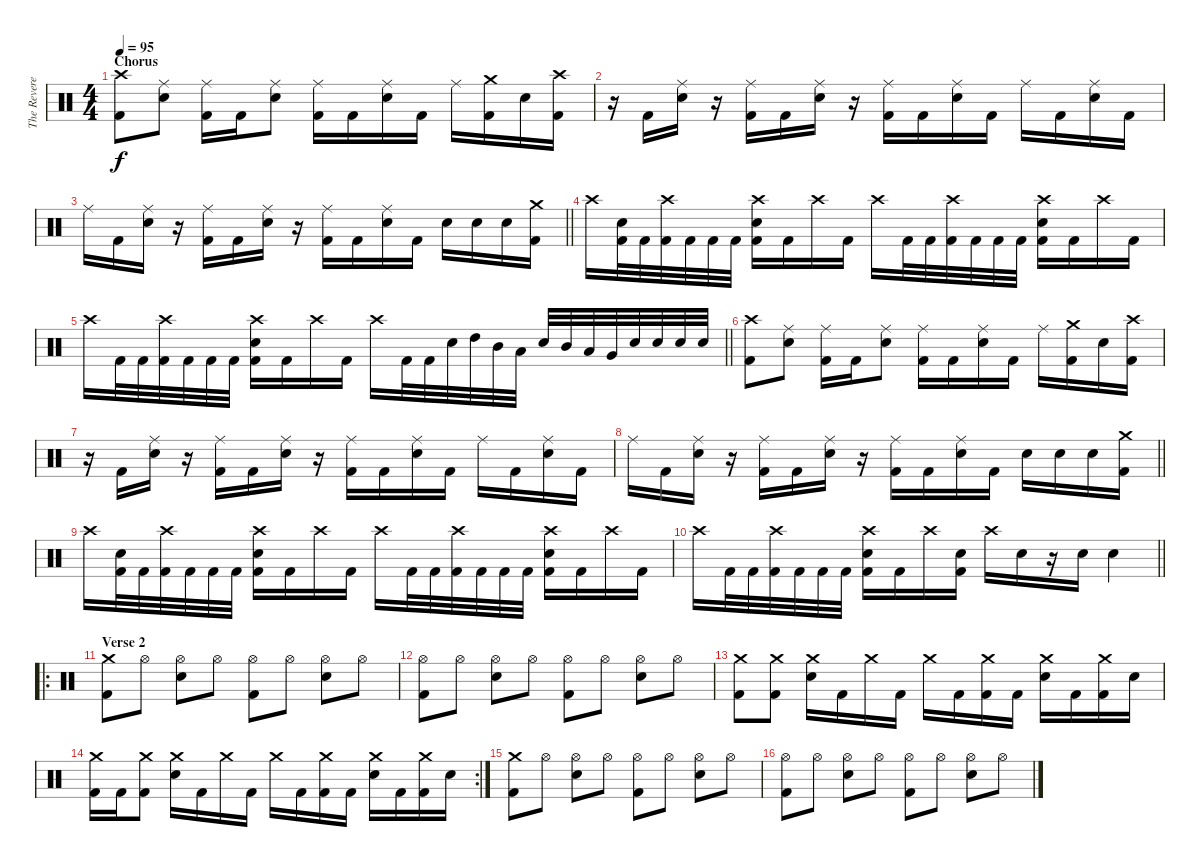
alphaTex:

\track ("The Reverend" "The Revere") {instrument percussion}
\staff {score}
\articulation defaults
\ts (4 4)
\section ("" "Chorus")
\tempo 95
\clef neutral
\ks c
("Crash high (hit)" "Kick (hit) 2").8{dy f} ("Ride (middle)" "Electric Snare (hit)").8 ("Ride (middle)" "Kick (hit) 2").16 "Kick (hit) 2".16 ("Ride (middle)" "Electric Snare (hit)").8 ("Ride (middle)" "Kick (hit) 2").16 "Kick (hit) 2".16 ("Ride (middle)" "Electric Snare (hit)").16 "Kick (hit) 2".16 "Ride (middle)".16 ("Crash medium (hit)" "Kick (hit) 2").16 "Electric Snare (hit)".16 ("Crash high (hit)" "Kick (hit) 2").16 |
r.16 "Kick (hit) 2".16 ("Ride (middle)" "Electric Snare (hit)").16 r.16 ("Ride (middle)" "Kick (hit) 2").16 "Kick (hit) 2".16 ("Ride (middle)" "Electric Snare (hit)").16 r.16 ("Ride (middle)" "Kick (hit) 2").16 "Kick (hit) 2".16 ("Ride (middle)" "Electric Snare (hit)").16 "Kick (hit) 2".16 "Ride (middle)".16 "Kick (hit) 2".16 ("Ride (middle)" "Electric Snare (hit)").16 "Kick (hit) 2".16 |
\barLineRight lightlight "Ride (middle)".16 "Kick (hit) 2".16
("Ride (middle)" "Electric Snare (hit)").16 r.16 ("Ride (middle)" "Kick (hit) 2").16 "Kick (hit) 2".16 ("Ride (middle)" "Electric Snare (hit)").16 r.16 ("Ride (middle)" "Kick (hit) 2").16 "Kick (hit) 2".16 ("Ride (middle)" "Electric Snare (hit)").16 "Kick (hit) 2".16 "Electric Snare (hit)".16 "Electric Snare (hit)".16 "Electric Snare (hit)".16 ("Crash medium (hit)" "Kick (hit) 2").16 |
"Crash high (hit)".16 ("Electric Snare (hit)" "Kick (hit) 2").32 "Kick (hit) 2".32 ("Crash high (hit)" "Kick (hit) 2").32 "Kick (hit) 2".32 "Kick (hit) 2".32 "Kick (hit) 2".32 ("Crash high (hit)" "Electric Snare (hit)" "Kick (hit) 2").16 "Kick (hit) 2".16 "Crash high (hit)".16 "Kick (hit) 2".16 "Crash high (hit)".16 "Kick (hit) 2".32 "Kick (hit) 2".32 ("Crash high (hit)" "Kick (hit) 2").32 "Kick (hit) 2".32 "Kick (hit) 2".32 "Kick (hit) 2".32 ("Crash high (hit)" "Electric Snare (hit)" "Kick (hit) 2").16 "Kick (hit) 2".16 "Crash high (hit)".16 "Kick (hit) 2".16 |
\barLineRight lightlight "Crash high (hit)".16 "Kick (hit) 2".32 "Kick (hit) 2".32
("Crash high (hit)" "Kick (hit) 2").32 "Kick (hit) 2".32 "Kick (hit) 2".32 "Kick (hit) 2".32 ("Crash high (hit)" "Electric Snare (hit)" "Kick (hit) 2").16 "Kick (hit) 2".16 "Crash high (hit)".16 "Kick (hit) 2".16 "Crash high (hit)".16 "Kick (hit) 2".32 "Kick (hit) 2".32 "Electric Snare (hit)".32 "High Tom (hit)".32 "Mid Tom (hit)".32 "Low Tom (hit)".32 "Electric Snare (hit)".32 "Mid Tom (hit)".32 "Low Tom (hit)".32 "Very Low Tom (hit)".32 "Electric Snare (hit)".32 "Electric Snare (hit)".32 "Electric Snare (hit)".32 "Electric Snare (hit)".32 |
("Crash high (hit)" "Kick (hit) 2").8 ("Ride (middle)" "Electric Snare (hit)").8 ("Ride (middle)" "Kick (hit) 2").16 "Kick (hit) 2".16 ("Ride (middle)" "Electric Snare (hit)").8 ("Ride (middle)" "Kick (hit) 2").16 "Kick (hit) 2".16 ("Ride (middle)" "Electric Snare (hit)").16 "Kick (hit) 2".16 "Ride (middle)".16 ("Crash medium (hit)" "Kick (hit) 2").16 "Electric Snare (hit)".16 ("Crash high (hit)" "Kick (hit) 2").16 |
r.16 "Kick (hit) 2".16 ("Ride (middle)" "Electric Snare (hit)").16 r.16 ("Ride (middle)" "Kick (hit) 2").16 "Kick (hit) 2".16 ("Ride (middle)" "Electric Snare (hit)").16 r.16 ("Ride (middle)" "Kick (hit) 2").16 "Kick (hit) 2".16 ("Ride (middle)" "Electric Snare (hit)").16 "Kick (hit) 2".16 "Ride (middle)".16 "Kick (hit) 2".16 ("Ride (middle)" "Electric Snare (hit)").16 "Kick (hit) 2".16 |
\barLineRight lightlight "Ride (middle)".16 "Kick (hit) 2".16
("Ride (middle)" "Electric Snare (hit)").16 r.16 ("Ride (middle)" "Kick (hit) 2").16 "Kick (hit) 2".16 ("Ride (middle)" "Electric Snare (hit)").16 r.16 ("Ride (middle)" "Kick (hit) 2").16 "Kick (hit) 2".16 ("Ride (middle)" "Electric Snare (hit)").16 "Kick (hit) 2".16 "Electric Snare (hit)".16 "Electric Snare (hit)".16 "Electric Snare (hit)".16 ("Crash medium (hit)" "Kick (hit) 2").16 |
"Crash high (hit)".16 ("Electric Snare (hit)" "Kick (hit) 2").32 "Kick (hit) 2".32 ("Crash high (hit)" "Kick (hit) 2").32 "Kick (hit) 2".32 "Kick (hit) 2".32 "Kick (hit) 2".32 ("Crash high (hit)" "Electric Snare (hit)" "Kick (hit) 2").16 "Kick (hit) 2".16 "Crash high (hit)".16 "Kick (hit) 2".16 "Crash high (hit)".16 "Kick (hit) 2".32 "Kick (hit) 2".32 ("Crash high (hit)" "Kick (hit) 2").32 "Kick (hit) 2".32 "Kick (hit) 2".32 "Kick (hit) 2".32 ("Crash high (hit)" "Electric Snare (hit)" "Kick (hit) 2").16 "Kick (hit) 2".16 "Crash high (hit)".16 "Kick (hit) 2".16 |
\barLineRight lightlight "Crash high (hit)".16 "Kick (hit) 2".32 "Kick (hit) 2".32
("Crash high (hit)" "Kick (hit) 2").32 "Kick (hit) 2".32 "Kick (hit) 2".32 "Kick (hit) 2".32 ("Crash high (hit)" "Electric Snare (hit)" "Kick (hit) 2").16 "Kick (hit) 2".16 "Crash high (hit)".16 ("Electric Snare (hit)" "Kick (hit) 2").16 "Crash high (hit)".16 "Electric Snare (hit)".16 r.16 "Electric Snare (hit)".16 "Electric Snare (hit)".4 |
\ro
\section ("" "Verse 2")
("Crash medium (hit)" "Kick (hit) 2").8 "Hi-Hat (open)".8 ("Hi-Hat (open)" "Electric Snare (hit)").8 "Hi-Hat (open)".8 ("Hi-Hat (open)" "Kick (hit) 2").8 "Hi-Hat (open)".8 ("Hi-Hat (open)" "Electric Snare (hit)").8 "Hi-Hat (open)".8 |
("Hi-Hat (open)" "Kick (hit) 2").8 "Hi-Hat (open)".8 ("Hi-Hat (open)" "Electric Snare (hit)").8 "Hi-Hat (open)".8 ("Hi-Hat (open)" "Kick (hit) 2").8 "Hi-Hat (open)".8 ("Hi-Hat (open)" "Electric Snare (hit)").8 "Hi-Hat (open)".8 |
("Crash medium (hit)" "Kick (hit) 2").8 ("Crash medium (hit)" "Kick (hit) 2").8 ("Crash medium (hit)" "Electric Snare (hit)").16 "Kick (hit) 2".16 "Crash medium (hit)".16 "Kick (hit) 2".16 "Crash medium (hit)".16 "Kick (hit) 2".16 ("Crash medium (hit)" "Kick (hit) 2").16 "Kick (hit) 2".16 ("Crash medium (hit)" "Electric Snare (hit)").16 "Kick (hit) 2".16 ("Crash medium (hit)" "Kick (hit) 2").16 "Electric Snare (hit)".16 |
\rc 2
("Crash medium (hit)" "Kick (hit) 2").16 "Kick (hit) 2".16 ("Crash medium (hit)" "Kick (hit) 2").8 ("Crash medium (hit)" "Electric Snare (hit)").16 "Kick (hit) 2".16 "Crash medium (hit)".16 "Kick (hit) 2".16 "Crash medium (hit)".16 "Kick (hit) 2".16 ("Crash medium (hit)" "Kick (hit) 2").16 "Kick (hit) 2".16 ("Crash medium (hit)" "Electric Snare (hit)").16 "Kick (hit) 2".16 ("Crash medium (hit)" "Kick (hit) 2").16 "Electric Snare (hit)".16 |
("Crash medium (hit)" "Kick (hit) 2").8 "Hi-Hat (open)".8 ("Hi-Hat (open)" "Electric Snare (hit)").8 "Hi-Hat (open)".8 ("Hi-Hat (open)" "Kick (hit) 2").8 "Hi-Hat (open)".8 ("Hi-Hat (open)" "Electric Snare (hit)").8 "Hi-Hat (open)".8 |
("Hi-Hat (open)" "Kick (hit) 2").8 "Hi-Hat (open)".8 ("Hi-Hat (open)" "Electric Snare (hit)").8 "Hi-Hat (open)".8 ("Hi-Hat (open)" "Kick (hit) 2").8 "Hi-Hat (open)".8 ("Hi-Hat (open)" "Electric Snare (hit)").8 "Hi-Hat (open)".8
